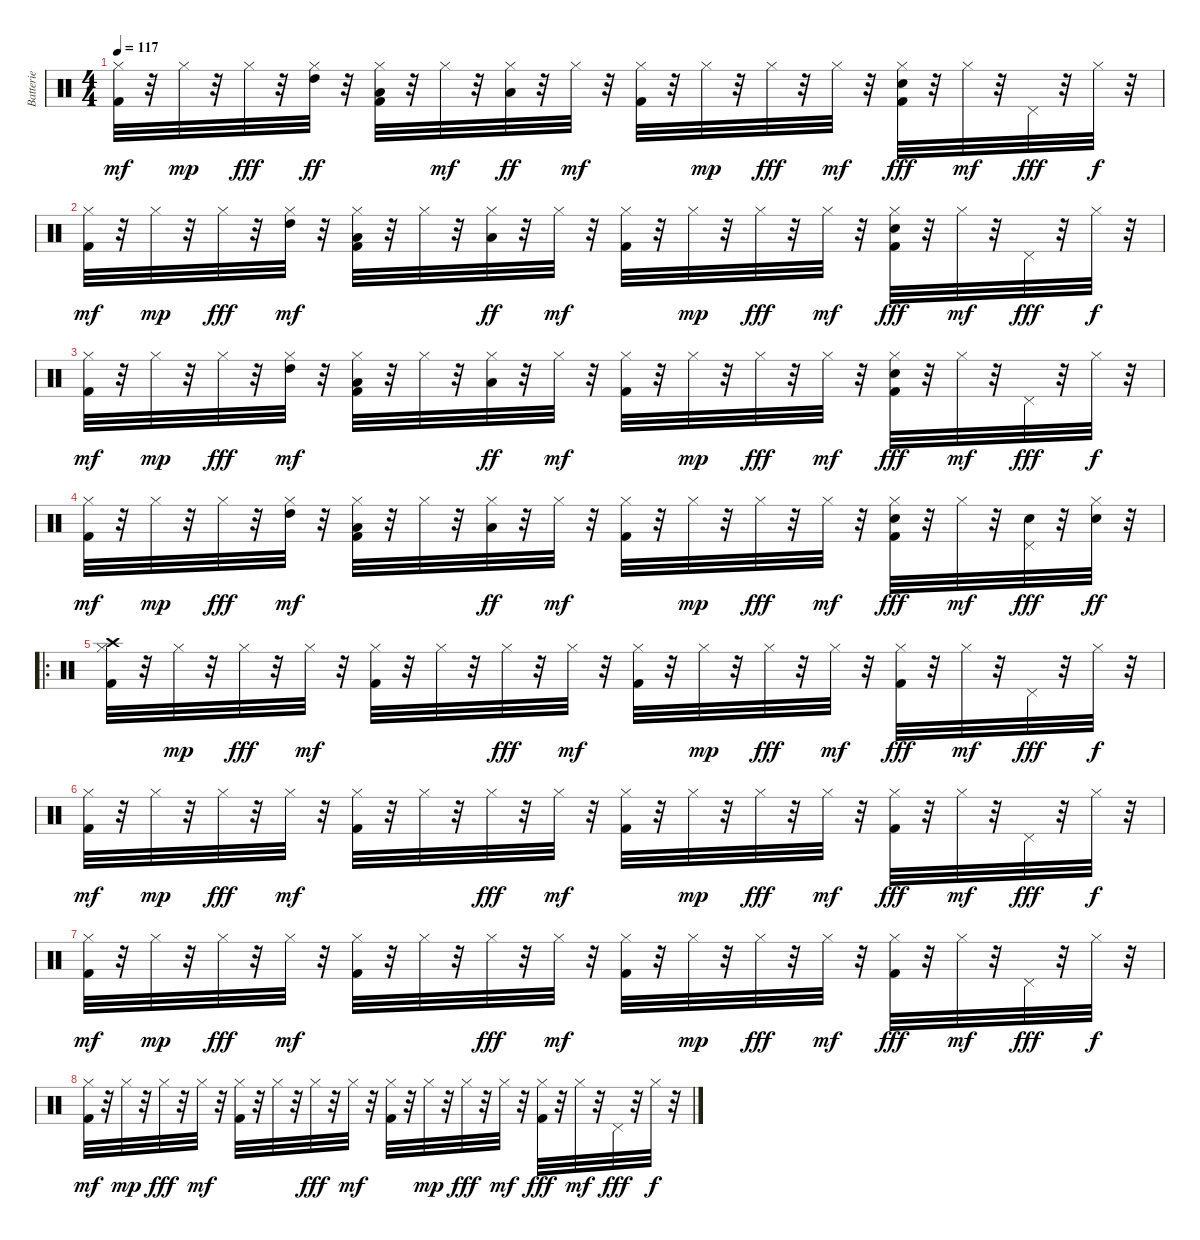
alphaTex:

\track ("Batterie" "Batterie") {instrument percussion}
\staff {score}
\articulation defaults
\ts (4 4)
\tempo 117
\clef neutral
\ks c
("Kick (hit) 2" "Hi-Hat (closed)").32{dy mf} r.32 "Hi-Hat (closed)".32{dy mp} r.32 "Hi-Hat (closed)".32{dy fff} r.32 ("Hi-Hat (closed)" "High Tom (hit)").32{dy ff} r.32 ("Kick (hit) 2" "Hi-Hat (closed)" "Low Tom (hit)").32 r.32 "Hi-Hat (closed)".32{dy mf} r.32 ("Hi-Hat (closed)" "Low Floor Tom (hit)").32{dy ff} r.32 "Hi-Hat (closed)".32{dy mf} r.32 ("Kick (hit) 2" "Hi-Hat (closed)").32 r.32 "Hi-Hat (closed)".32{dy mp} r.32 "Hi-Hat (closed)".32{dy fff} r.32 "Hi-Hat (closed)".32{dy mf} r.32 ("Kick (hit) 2" "Electric Snare (hit)" "Hi-Hat (closed)").32{dy fff} r.32 "Hi-Hat (closed)".32{dy mf} r.32 "Pedal Hi-Hat (hit)".32{dy fff} r.32 "Hi-Hat (closed)".32{dy f} r.32 |
("Kick (hit) 2" "Hi-Hat (closed)").32{dy mf} r.32 "Hi-Hat (closed)".32{dy mp} r.32 "Hi-Hat (closed)".32{dy fff} r.32 ("Hi-Hat (closed)" "High Tom (hit)").32{dy mf} r.32 ("Kick (hit) 2" "Hi-Hat (closed)" "Low Tom (hit)").32 r.32 "Hi-Hat (closed)".32 r.32 ("Hi-Hat (closed)" "Low Floor Tom (hit)").32{dy ff} r.32 "Hi-Hat (closed)".32{dy mf} r.32 ("Kick (hit) 2" "Hi-Hat (closed)").32 r.32 "Hi-Hat (closed)".32{dy mp} r.32 "Hi-Hat (closed)".32{dy fff} r.32 "Hi-Hat (closed)".32{dy mf} r.32 ("Kick (hit) 2" "Electric Snare (hit)" "Hi-Hat (closed)").32{dy fff} r.32 "Hi-Hat (closed)".32{dy mf} r.32 "Pedal Hi-Hat (hit)".32{dy fff} r.32 "Hi-Hat (closed)".32{dy f} r.32 |
("Kick (hit) 2" "Hi-Hat (closed)").32{dy mf} r.32 "Hi-Hat (closed)".32{dy mp} r.32 "Hi-Hat (closed)".32{dy fff} r.32 ("Hi-Hat (closed)" "High Tom (hit)").32{dy mf} r.32 ("Kick (hit) 2" "Hi-Hat (closed)" "Low Tom (hit)").32 r.32 "Hi-Hat (closed)".32 r.32 ("Hi-Hat (closed)" "Low Floor Tom (hit)").32{dy ff} r.32 "Hi-Hat (closed)".32{dy mf} r.32 ("Kick (hit) 2" "Hi-Hat (closed)").32 r.32 "Hi-Hat (closed)".32{dy mp} r.32 "Hi-Hat (closed)".32{dy fff} r.32 "Hi-Hat (closed)".32{dy mf} r.32 ("Kick (hit) 2" "Electric Snare (hit)" "Hi-Hat (closed)").32{dy fff} r.32 "Hi-Hat (closed)".32{dy mf} r.32 "Pedal Hi-Hat (hit)".32{dy fff} r.32 "Hi-Hat (closed)".32{dy f} r.32 |
("Kick (hit) 2" "Hi-Hat (closed)").32{dy mf} r.32 "Hi-Hat (closed)".32{dy mp} r.32 "Hi-Hat (closed)".32{dy fff} r.32 ("Hi-Hat (closed)" "High Tom (hit)").32{dy mf} r.32 ("Kick (hit) 2" "Hi-Hat (closed)" "Low Tom (hit)").32 r.32 "Hi-Hat (closed)".32 r.32 ("Hi-Hat (closed)" "Low Floor Tom (hit)").32{dy ff} r.32 "Hi-Hat (closed)".32{dy mf} r.32 ("Kick (hit) 2" "Hi-Hat (closed)").32 r.32 "Hi-Hat (closed)".32{dy mp} r.32 "Hi-Hat (closed)".32{dy fff} r.32 "Hi-Hat (closed)".32{dy mf} r.32 ("Kick (hit) 2" "Electric Snare (hit)" "Hi-Hat (closed)").32{dy fff} r.32 "Hi-Hat (closed)".32{dy mf} r.32 ("Electric Snare (hit)" "Pedal Hi-Hat (hit)").32{dy fff} r.32 ("Electric Snare (hit)" "Hi-Hat (closed)").32{dy ff} r.32 |
\ro
("Kick (hit) 2" "Hi-Hat (closed)" "Crash high (hit)").32 r.32 "Hi-Hat (closed)".32{dy mp} r.32 "Hi-Hat (closed)".32{dy fff} r.32 "Hi-Hat (closed)".32{dy mf} r.32 ("Kick (hit) 2" "Hi-Hat (closed)").32 r.32 "Hi-Hat (closed)".32 r.32 "Hi-Hat (closed)".32{dy fff} r.32 "Hi-Hat (closed)".32{dy mf} r.32 ("Kick (hit) 2" "Hi-Hat (closed)").32 r.32 "Hi-Hat (closed)".32{dy mp} r.32 "Hi-Hat (closed)".32{dy fff} r.32 "Hi-Hat (closed)".32{dy mf} r.32 ("Kick (hit) 2" "Hi-Hat (closed)").32{dy fff} r.32 "Hi-Hat (closed)".32{dy mf} r.32 "Pedal Hi-Hat (hit)".32{dy fff} r.32 "Hi-Hat (closed)".32{dy f} r.32 |
("Kick (hit) 2" "Hi-Hat (closed)").32{dy mf} r.32 "Hi-Hat (closed)".32{dy mp} r.32 "Hi-Hat (closed)".32{dy fff} r.32 "Hi-Hat (closed)".32{dy mf} r.32 ("Kick (hit) 2" "Hi-Hat (closed)").32 r.32 "Hi-Hat (closed)".32 r.32 "Hi-Hat (closed)".32{dy fff} r.32 "Hi-Hat (closed)".32{dy mf} r.32 ("Kick (hit) 2" "Hi-Hat (closed)").32 r.32 "Hi-Hat (closed)".32{dy mp} r.32 "Hi-Hat (closed)".32{dy fff} r.32 "Hi-Hat (closed)".32{dy mf} r.32 ("Kick (hit) 2" "Hi-Hat (closed)").32{dy fff} r.32 "Hi-Hat (closed)".32{dy mf} r.32 "Pedal Hi-Hat (hit)".32{dy fff} r.32 "Hi-Hat (closed)".32{dy f} r.32 |
("Kick (hit) 2" "Hi-Hat (closed)").32{dy mf} r.32 "Hi-Hat (closed)".32{dy mp} r.32 "Hi-Hat (closed)".32{dy fff} r.32 "Hi-Hat (closed)".32{dy mf} r.32 ("Kick (hit) 2" "Hi-Hat (closed)").32 r.32 "Hi-Hat (closed)".32 r.32 "Hi-Hat (closed)".32{dy fff} r.32 "Hi-Hat (closed)".32{dy mf} r.32 ("Kick (hit) 2" "Hi-Hat (closed)").32 r.32 "Hi-Hat (closed)".32{dy mp} r.32 "Hi-Hat (closed)".32{dy fff} r.32 "Hi-Hat (closed)".32{dy mf} r.32 ("Kick (hit) 2" "Hi-Hat (closed)").32{dy fff} r.32 "Hi-Hat (closed)".32{dy mf} r.32 "Pedal Hi-Hat (hit)".32{dy fff} r.32 "Hi-Hat (closed)".32{dy f} r.32 |
("Kick (hit) 2" "Hi-Hat (closed)").32{dy mf} r.32 "Hi-Hat (closed)".32{dy mp} r.32 "Hi-Hat (closed)".32{dy fff} r.32 "Hi-Hat (closed)".32{dy mf} r.32 ("Kick (hit) 2" "Hi-Hat (closed)").32 r.32 "Hi-Hat (closed)".32 r.32 "Hi-Hat (closed)".32{dy fff} r.32 "Hi-Hat (closed)".32{dy mf} r.32 ("Kick (hit) 2" "Hi-Hat (closed)").32 r.32 "Hi-Hat (closed)".32{dy mp} r.32 "Hi-Hat (closed)".32{dy fff} r.32 "Hi-Hat (closed)".32{dy mf} r.32 ("Kick (hit) 2" "Hi-Hat (closed)").32{dy fff} r.32 "Hi-Hat (closed)".32{dy mf} r.32 "Pedal Hi-Hat (hit)".32{dy fff} r.32 "Hi-Hat (closed)".32{dy f} r.32
